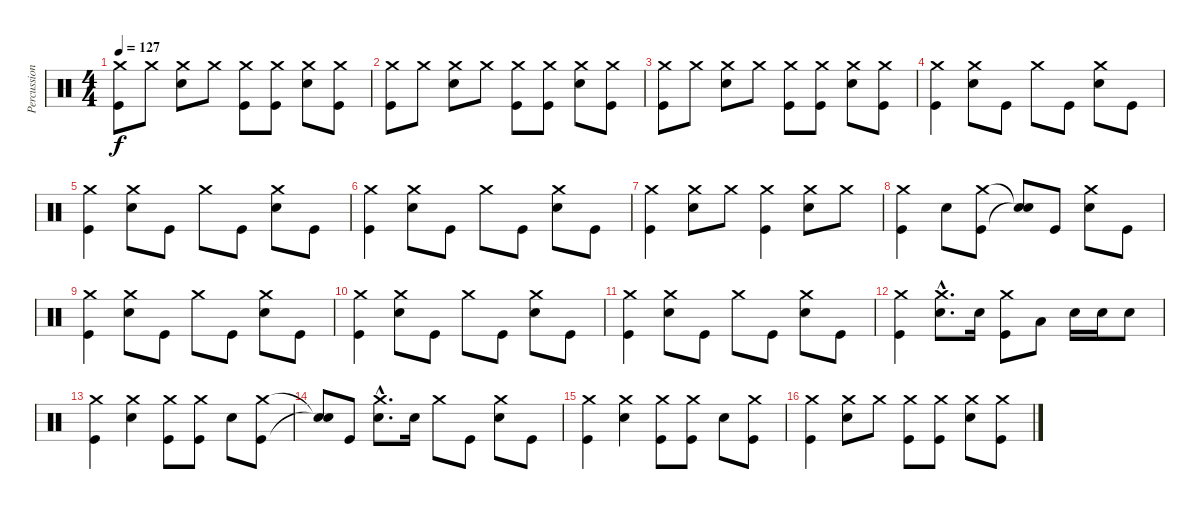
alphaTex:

\track ("Percussion" "Percussion") {instrument percussion}
\staff {score}
\articulation defaults
\ts (4 4)
\tempo 127
\clef neutral
\ks c
("Crash medium (hit)" "Kick (hit)").8{dy f} "Crash medium (hit)".8 ("Crash medium (hit)" "Snare (hit) 2").8 "Crash medium (hit)".8 ("Crash medium (hit)" "Kick (hit)").8 ("Crash medium (hit)" "Kick (hit)").8 ("Crash medium (hit)" "Snare (hit) 2").8 ("Crash medium (hit)" "Kick (hit)").8 |
("Crash medium (hit)" "Kick (hit)").8 "Crash medium (hit)".8 ("Crash medium (hit)" "Snare (hit) 2").8 "Crash medium (hit)".8 ("Crash medium (hit)" "Kick (hit)").8 ("Crash medium (hit)" "Kick (hit)").8 ("Crash medium (hit)" "Snare (hit) 2").8 ("Crash medium (hit)" "Kick (hit)").8 |
("Crash medium (hit)" "Kick (hit)").8 "Crash medium (hit)".8 ("Crash medium (hit)" "Snare (hit) 2").8 "Crash medium (hit)".8 ("Crash medium (hit)" "Kick (hit)").8 ("Crash medium (hit)" "Kick (hit)").8 ("Crash medium (hit)" "Snare (hit) 2").8 ("Crash medium (hit)" "Kick (hit)").8 |
("Crash medium (hit)" "Kick (hit)").4 ("Crash medium (hit)" "Snare (hit) 2").8 "Kick (hit)".8 "Crash medium (hit)".8 "Kick (hit)".8 ("Crash medium (hit)" "Snare (hit) 2").8 "Kick (hit)".8 |
("Crash medium (hit)" "Kick (hit)").4 ("Crash medium (hit)" "Snare (hit) 2").8 "Kick (hit)".8 "Crash medium (hit)".8 "Kick (hit)".8 ("Crash medium (hit)" "Snare (hit) 2").8 "Kick (hit)".8 |
("Crash medium (hit)" "Kick (hit)").4 ("Crash medium (hit)" "Snare (hit) 2").8 "Kick (hit)".8 "Crash medium (hit)".8 "Kick (hit)".8 ("Crash medium (hit)" "Snare (hit) 2").8 "Kick (hit)".8 |
("Crash medium (hit)" "Kick (hit)").4 ("Crash medium (hit)" "Snare (hit) 2").8 "Crash medium (hit)".8 ("Crash medium (hit)" "Kick (hit)").4 ("Crash medium (hit)" "Snare (hit) 2").8 "Crash medium (hit)".8 |
("Crash medium (hit)" "Kick (hit)").4 "Snare (hit) 2".8 ("Crash medium (hit)" "Kick (hit)").8 ("Snare (hit)"{t} "Snare (hit)"{t}).8 "Kick (hit)".8 ("Crash medium (hit)" "Snare (hit) 2").8 "Kick (hit)".8 |
("Crash medium (hit)" "Kick (hit)").4 ("Crash medium (hit)" "Snare (hit) 2").8 "Kick (hit)".8 "Crash medium (hit)".8 "Kick (hit)".8 ("Crash medium (hit)" "Snare (hit) 2").8 "Kick (hit)".8 |
("Crash medium (hit)" "Kick (hit)").4 ("Crash medium (hit)" "Snare (hit) 2").8 "Kick (hit)".8 "Crash medium (hit)".8 "Kick (hit)".8 ("Crash medium (hit)" "Snare (hit) 2").8 "Kick (hit)".8 |
("Crash medium (hit)" "Kick (hit)").4 ("Crash medium (hit)" "Snare (hit) 2").8 "Kick (hit)".8 "Crash medium (hit)".8 "Kick (hit)".8 ("Crash medium (hit)" "Snare (hit) 2").8 "Kick (hit)".8 |
("Crash medium (hit)" "Kick (hit)").4 ("Crash medium (hit)"{hac} "Snare (hit) 2"{hac}).8{d} "Snare (hit) 2".16 ("Crash medium (hit)" "Kick (hit)").8 "Low Tom (hit)".8 "Snare (hit) 2".16 "Snare (hit) 2".16 "Snare (hit) 2".8 |
("Crash medium (hit)" "Kick (hit)").4 ("Crash medium (hit)" "Snare (hit) 2").4 ("Crash medium (hit)" "Kick (hit)").8 ("Crash medium (hit)" "Kick (hit)").8 "Snare (hit) 2".8 ("Crash medium (hit)" "Kick (hit)").8 |
("Snare (hit)"{t} "Snare (hit)"{t}).8 "Kick (hit)".8 ("Crash medium (hit)"{hac} "Snare (hit) 2"{hac}).8{d} "Snare (hit) 2".16 "Crash medium (hit)".8 "Kick (hit)".8 ("Crash medium (hit)" "Snare (hit) 2").8 "Kick (hit)".8 |
("Crash medium (hit)" "Kick (hit)").4 ("Crash medium (hit)" "Snare (hit) 2").4 ("Crash medium (hit)" "Kick (hit)").8 ("Crash medium (hit)" "Kick (hit)").8 "Snare (hit) 2".8 ("Crash medium (hit)" "Kick (hit)").8 |
("Crash medium (hit)" "Kick (hit)").4 ("Crash medium (hit)" "Snare (hit) 2").8 "Crash medium (hit)".8 ("Crash medium (hit)" "Kick (hit)").8 ("Crash medium (hit)" "Kick (hit)").8 ("Crash medium (hit)" "Snare (hit) 2").8 ("Crash medium (hit)" "Kick (hit)").8
